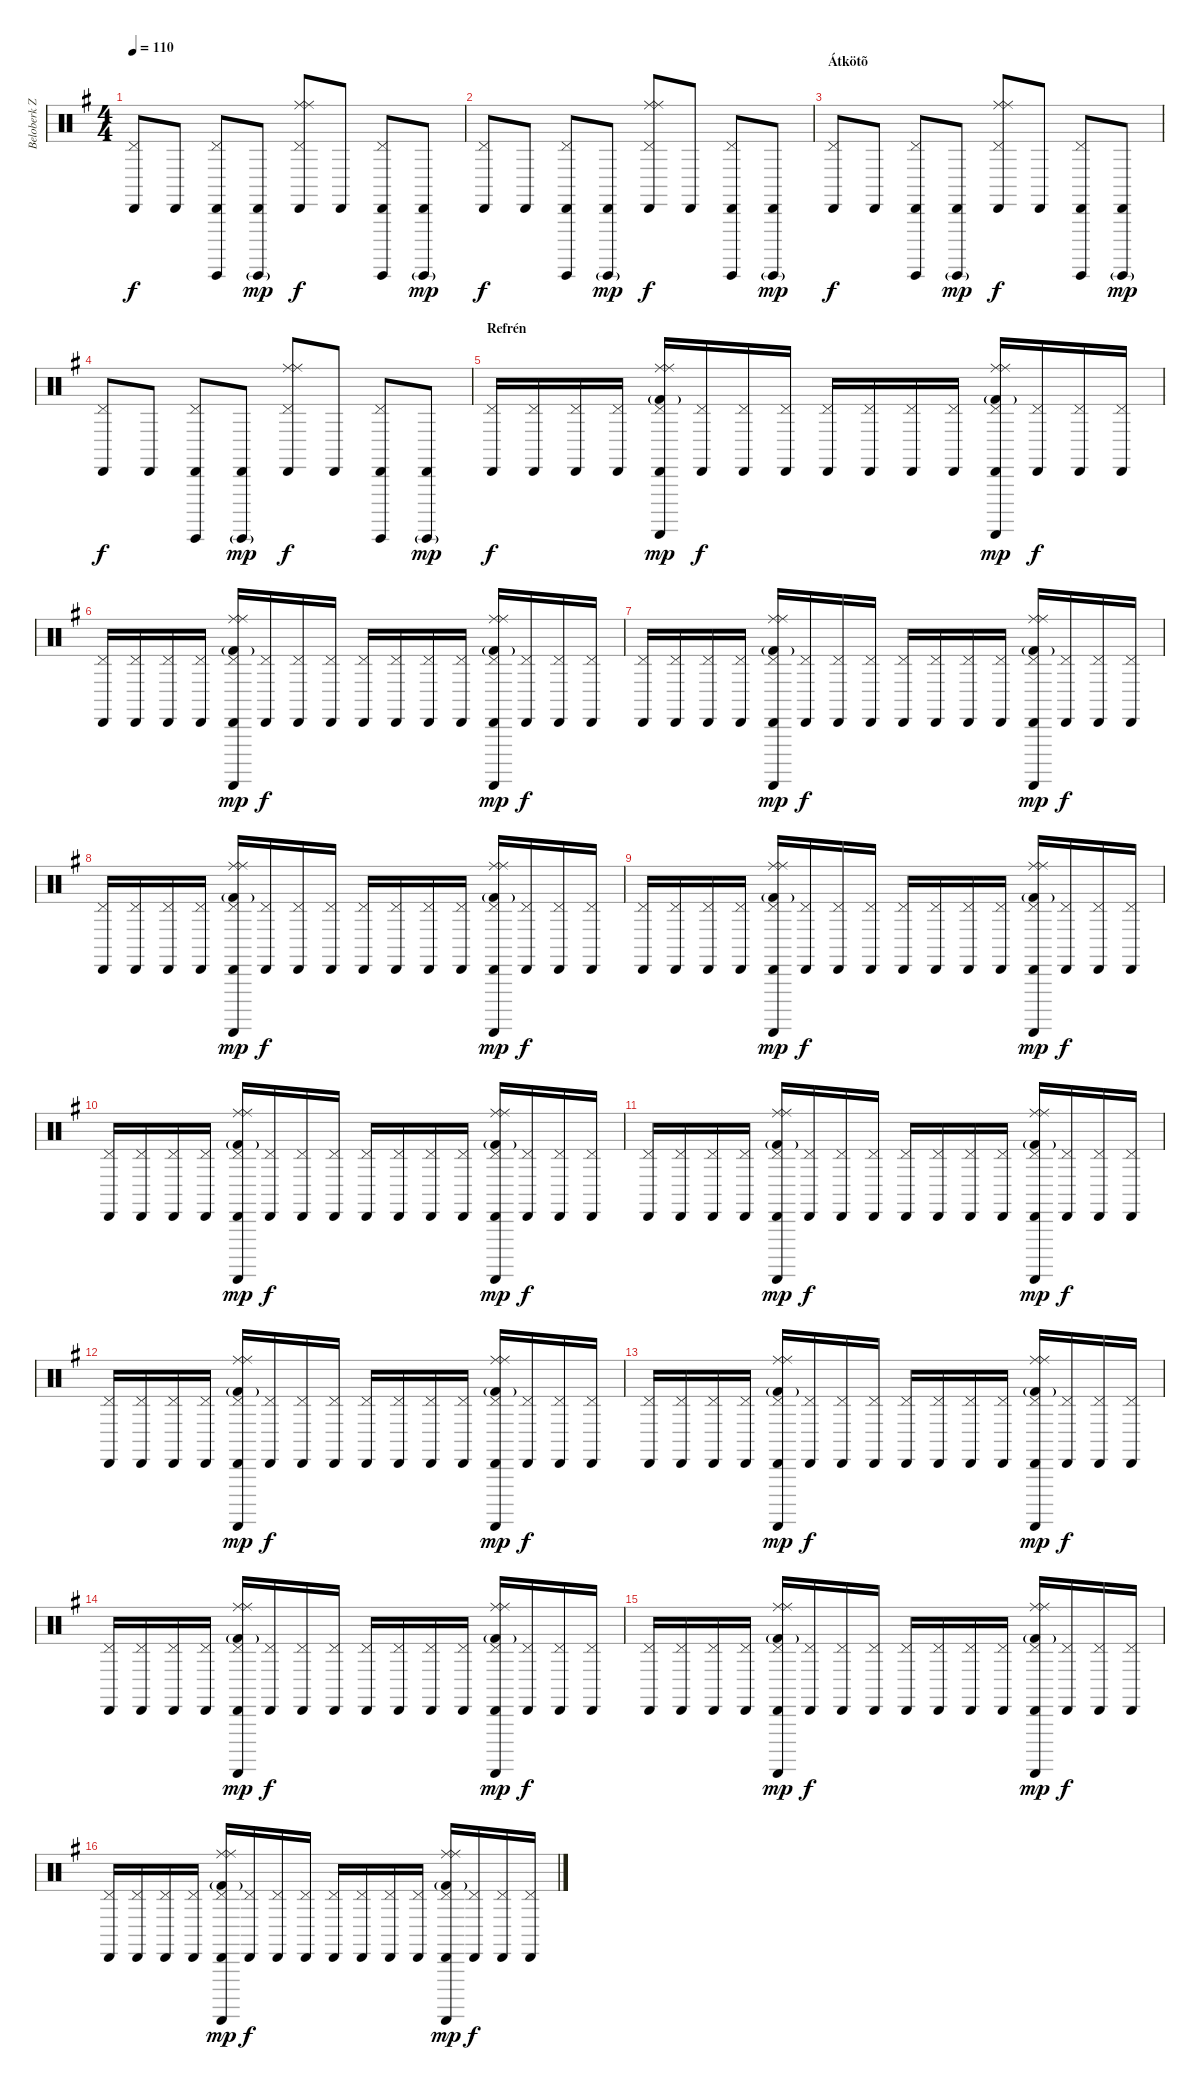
\track ("Beloberk Zsolt" "Beloberk Z") {instrument percussion}
\staff {score}
\articulation defaults
\ts (4 4)
\tempo 110
\clef neutral
\ks eminor
("Cabasa (hit)" "Pedal Hi-Hat (hit)").8{dy f} "Cabasa (hit)".8 ("Cabasa (hit)" "Guiro (hit)" "Pedal Hi-Hat (hit)").8 ("Cabasa (hit)" "Guiro (hit)"{g}).8{dy mp} ("Cabasa (hit)" "Pedal Hi-Hat (hit)" "Ride (middle)" "Ride (middle)").8{dy f} "Cabasa (hit)".8 ("Cabasa (hit)" "Guiro (hit)" "Pedal Hi-Hat (hit)").8 ("Cabasa (hit)" "Guiro (hit)"{g}).8{dy mp} |
("Cabasa (hit)" "Pedal Hi-Hat (hit)").8{dy f} "Cabasa (hit)".8 ("Cabasa (hit)" "Guiro (hit)" "Pedal Hi-Hat (hit)").8 ("Cabasa (hit)" "Guiro (hit)"{g}).8{dy mp} ("Cabasa (hit)" "Pedal Hi-Hat (hit)" "Ride (middle)" "Ride (middle)").8{dy f} "Cabasa (hit)".8 ("Cabasa (hit)" "Guiro (hit)" "Pedal Hi-Hat (hit)").8 ("Cabasa (hit)" "Guiro (hit)"{g}).8{dy mp} |
\section ("" "Átkötõ")
("Cabasa (hit)" "Pedal Hi-Hat (hit)").8{dy f} "Cabasa (hit)".8 ("Cabasa (hit)" "Guiro (hit)" "Pedal Hi-Hat (hit)").8 ("Cabasa (hit)" "Guiro (hit)"{g}).8{dy mp} ("Cabasa (hit)" "Pedal Hi-Hat (hit)" "Ride (middle)" "Ride (middle)").8{dy f} "Cabasa (hit)".8 ("Cabasa (hit)" "Guiro (hit)" "Pedal Hi-Hat (hit)").8 ("Cabasa (hit)" "Guiro (hit)"{g}).8{dy mp} |
("Cabasa (hit)" "Pedal Hi-Hat (hit)").8{dy f} "Cabasa (hit)".8 ("Cabasa (hit)" "Guiro (hit)" "Pedal Hi-Hat (hit)").8 ("Cabasa (hit)" "Guiro (hit)"{g}).8{dy mp} ("Cabasa (hit)" "Pedal Hi-Hat (hit)" "Ride (middle)" "Ride (middle)").8{dy f} "Cabasa (hit)".8 ("Cabasa (hit)" "Guiro (hit)" "Pedal Hi-Hat (hit)").8 ("Cabasa (hit)" "Guiro (hit)"{g}).8{dy mp} |
\section ("" "Refrén")
("Pedal Hi-Hat (hit)" "Cabasa (hit)").16{dy f} ("Pedal Hi-Hat (hit)" "Cabasa (hit)").16 ("Pedal Hi-Hat (hit)" "Cabasa (hit)").16 ("Pedal Hi-Hat (hit)" "Cabasa (hit)").16 ("Pedal Hi-Hat (hit)" "Cabasa (hit)" "Ride (middle)" "Ride (middle)" "Kick (hit) 2"{g} "Guiro (scrap-return)").16{dy mp} ("Pedal Hi-Hat (hit)" "Cabasa (hit)").16{dy f} ("Pedal Hi-Hat (hit)" "Cabasa (hit)").16 ("Pedal Hi-Hat (hit)" "Cabasa (hit)").16 ("Pedal Hi-Hat (hit)" "Cabasa (hit)").16 ("Pedal Hi-Hat (hit)" "Cabasa (hit)").16 ("Pedal Hi-Hat (hit)" "Cabasa (hit)").16 ("Pedal Hi-Hat (hit)" "Cabasa (hit)").16 ("Pedal Hi-Hat (hit)" "Cabasa (hit)" "Ride (middle)" "Ride (middle)" "Kick (hit) 2"{g} "Guiro (scrap-return)").16{dy mp} ("Pedal Hi-Hat (hit)" "Cabasa (hit)").16{dy f} ("Pedal Hi-Hat (hit)" "Cabasa (hit)").16 ("Pedal Hi-Hat (hit)" "Cabasa (hit)").16 |
("Pedal Hi-Hat (hit)" "Cabasa (hit)").16 ("Pedal Hi-Hat (hit)" "Cabasa (hit)").16 ("Pedal Hi-Hat (hit)" "Cabasa (hit)").16 ("Pedal Hi-Hat (hit)" "Cabasa (hit)").16 ("Pedal Hi-Hat (hit)" "Cabasa (hit)" "Ride (middle)" "Ride (middle)" "Kick (hit) 2"{g} "Guiro (scrap-return)").16{dy mp} ("Pedal Hi-Hat (hit)" "Cabasa (hit)").16{dy f} ("Pedal Hi-Hat (hit)" "Cabasa (hit)").16 ("Pedal Hi-Hat (hit)" "Cabasa (hit)").16 ("Pedal Hi-Hat (hit)" "Cabasa (hit)").16 ("Pedal Hi-Hat (hit)" "Cabasa (hit)").16 ("Pedal Hi-Hat (hit)" "Cabasa (hit)").16 ("Pedal Hi-Hat (hit)" "Cabasa (hit)").16 ("Pedal Hi-Hat (hit)" "Cabasa (hit)" "Ride (middle)" "Ride (middle)" "Kick (hit) 2"{g} "Guiro (scrap-return)").16{dy mp} ("Pedal Hi-Hat (hit)" "Cabasa (hit)").16{dy f} ("Pedal Hi-Hat (hit)" "Cabasa (hit)").16 ("Pedal Hi-Hat (hit)" "Cabasa (hit)").16 |
("Pedal Hi-Hat (hit)" "Cabasa (hit)").16 ("Pedal Hi-Hat (hit)" "Cabasa (hit)").16 ("Pedal Hi-Hat (hit)" "Cabasa (hit)").16 ("Pedal Hi-Hat (hit)" "Cabasa (hit)").16 ("Pedal Hi-Hat (hit)" "Cabasa (hit)" "Ride (middle)" "Ride (middle)" "Kick (hit) 2"{g} "Guiro (scrap-return)").16{dy mp} ("Pedal Hi-Hat (hit)" "Cabasa (hit)").16{dy f} ("Pedal Hi-Hat (hit)" "Cabasa (hit)").16 ("Pedal Hi-Hat (hit)" "Cabasa (hit)").16 ("Pedal Hi-Hat (hit)" "Cabasa (hit)").16 ("Pedal Hi-Hat (hit)" "Cabasa (hit)").16 ("Pedal Hi-Hat (hit)" "Cabasa (hit)").16 ("Pedal Hi-Hat (hit)" "Cabasa (hit)").16 ("Pedal Hi-Hat (hit)" "Cabasa (hit)" "Ride (middle)" "Ride (middle)" "Kick (hit) 2"{g} "Guiro (scrap-return)").16{dy mp} ("Pedal Hi-Hat (hit)" "Cabasa (hit)").16{dy f} ("Pedal Hi-Hat (hit)" "Cabasa (hit)").16 ("Pedal Hi-Hat (hit)" "Cabasa (hit)").16 |
("Pedal Hi-Hat (hit)" "Cabasa (hit)").16 ("Pedal Hi-Hat (hit)" "Cabasa (hit)").16 ("Pedal Hi-Hat (hit)" "Cabasa (hit)").16 ("Pedal Hi-Hat (hit)" "Cabasa (hit)").16 ("Pedal Hi-Hat (hit)" "Cabasa (hit)" "Ride (middle)" "Ride (middle)" "Kick (hit) 2"{g} "Guiro (scrap-return)").16{dy mp} ("Pedal Hi-Hat (hit)" "Cabasa (hit)").16{dy f} ("Pedal Hi-Hat (hit)" "Cabasa (hit)").16 ("Pedal Hi-Hat (hit)" "Cabasa (hit)").16 ("Pedal Hi-Hat (hit)" "Cabasa (hit)").16 ("Pedal Hi-Hat (hit)" "Cabasa (hit)").16 ("Pedal Hi-Hat (hit)" "Cabasa (hit)").16 ("Pedal Hi-Hat (hit)" "Cabasa (hit)").16 ("Pedal Hi-Hat (hit)" "Cabasa (hit)" "Ride (middle)" "Ride (middle)" "Kick (hit) 2"{g} "Guiro (scrap-return)").16{dy mp} ("Pedal Hi-Hat (hit)" "Cabasa (hit)").16{dy f} ("Pedal Hi-Hat (hit)" "Cabasa (hit)").16 ("Pedal Hi-Hat (hit)" "Cabasa (hit)").16 |
("Pedal Hi-Hat (hit)" "Cabasa (hit)").16 ("Pedal Hi-Hat (hit)" "Cabasa (hit)").16 ("Pedal Hi-Hat (hit)" "Cabasa (hit)").16 ("Pedal Hi-Hat (hit)" "Cabasa (hit)").16 ("Pedal Hi-Hat (hit)" "Cabasa (hit)" "Ride (middle)" "Ride (middle)" "Kick (hit) 2"{g} "Guiro (scrap-return)").16{dy mp} ("Pedal Hi-Hat (hit)" "Cabasa (hit)").16{dy f} ("Pedal Hi-Hat (hit)" "Cabasa (hit)").16 ("Pedal Hi-Hat (hit)" "Cabasa (hit)").16 ("Pedal Hi-Hat (hit)" "Cabasa (hit)").16 ("Pedal Hi-Hat (hit)" "Cabasa (hit)").16 ("Pedal Hi-Hat (hit)" "Cabasa (hit)").16 ("Pedal Hi-Hat (hit)" "Cabasa (hit)").16 ("Pedal Hi-Hat (hit)" "Cabasa (hit)" "Ride (middle)" "Ride (middle)" "Kick (hit) 2"{g} "Guiro (scrap-return)").16{dy mp} ("Pedal Hi-Hat (hit)" "Cabasa (hit)").16{dy f} ("Pedal Hi-Hat (hit)" "Cabasa (hit)").16 ("Pedal Hi-Hat (hit)" "Cabasa (hit)").16 |
("Pedal Hi-Hat (hit)" "Cabasa (hit)").16 ("Pedal Hi-Hat (hit)" "Cabasa (hit)").16 ("Pedal Hi-Hat (hit)" "Cabasa (hit)").16 ("Pedal Hi-Hat (hit)" "Cabasa (hit)").16 ("Pedal Hi-Hat (hit)" "Cabasa (hit)" "Ride (middle)" "Ride (middle)" "Kick (hit) 2"{g} "Guiro (scrap-return)").16{dy mp} ("Pedal Hi-Hat (hit)" "Cabasa (hit)").16{dy f} ("Pedal Hi-Hat (hit)" "Cabasa (hit)").16 ("Pedal Hi-Hat (hit)" "Cabasa (hit)").16 ("Pedal Hi-Hat (hit)" "Cabasa (hit)").16 ("Pedal Hi-Hat (hit)" "Cabasa (hit)").16 ("Pedal Hi-Hat (hit)" "Cabasa (hit)").16 ("Pedal Hi-Hat (hit)" "Cabasa (hit)").16 ("Pedal Hi-Hat (hit)" "Cabasa (hit)" "Ride (middle)" "Ride (middle)" "Kick (hit) 2"{g} "Guiro (scrap-return)").16{dy mp} ("Pedal Hi-Hat (hit)" "Cabasa (hit)").16{dy f} ("Pedal Hi-Hat (hit)" "Cabasa (hit)").16 ("Pedal Hi-Hat (hit)" "Cabasa (hit)").16 |
("Pedal Hi-Hat (hit)" "Cabasa (hit)").16 ("Pedal Hi-Hat (hit)" "Cabasa (hit)").16 ("Pedal Hi-Hat (hit)" "Cabasa (hit)").16 ("Pedal Hi-Hat (hit)" "Cabasa (hit)").16 ("Pedal Hi-Hat (hit)" "Cabasa (hit)" "Ride (middle)" "Ride (middle)" "Kick (hit) 2"{g} "Guiro (scrap-return)").16{dy mp} ("Pedal Hi-Hat (hit)" "Cabasa (hit)").16{dy f} ("Pedal Hi-Hat (hit)" "Cabasa (hit)").16 ("Pedal Hi-Hat (hit)" "Cabasa (hit)").16 ("Pedal Hi-Hat (hit)" "Cabasa (hit)").16 ("Pedal Hi-Hat (hit)" "Cabasa (hit)").16 ("Pedal Hi-Hat (hit)" "Cabasa (hit)").16 ("Pedal Hi-Hat (hit)" "Cabasa (hit)").16 ("Pedal Hi-Hat (hit)" "Cabasa (hit)" "Ride (middle)" "Ride (middle)" "Kick (hit) 2"{g} "Guiro (scrap-return)").16{dy mp} ("Pedal Hi-Hat (hit)" "Cabasa (hit)").16{dy f} ("Pedal Hi-Hat (hit)" "Cabasa (hit)").16 ("Pedal Hi-Hat (hit)" "Cabasa (hit)").16 |
("Pedal Hi-Hat (hit)" "Cabasa (hit)").16 ("Pedal Hi-Hat (hit)" "Cabasa (hit)").16 ("Pedal Hi-Hat (hit)" "Cabasa (hit)").16 ("Pedal Hi-Hat (hit)" "Cabasa (hit)").16 ("Pedal Hi-Hat (hit)" "Cabasa (hit)" "Ride (middle)" "Ride (middle)" "Kick (hit) 2"{g} "Guiro (scrap-return)").16{dy mp} ("Pedal Hi-Hat (hit)" "Cabasa (hit)").16{dy f} ("Pedal Hi-Hat (hit)" "Cabasa (hit)").16 ("Pedal Hi-Hat (hit)" "Cabasa (hit)").16 ("Pedal Hi-Hat (hit)" "Cabasa (hit)").16 ("Pedal Hi-Hat (hit)" "Cabasa (hit)").16 ("Pedal Hi-Hat (hit)" "Cabasa (hit)").16 ("Pedal Hi-Hat (hit)" "Cabasa (hit)").16 ("Pedal Hi-Hat (hit)" "Cabasa (hit)" "Ride (middle)" "Ride (middle)" "Kick (hit) 2"{g} "Guiro (scrap-return)").16{dy mp} ("Pedal Hi-Hat (hit)" "Cabasa (hit)").16{dy f} ("Pedal Hi-Hat (hit)" "Cabasa (hit)").16 ("Pedal Hi-Hat (hit)" "Cabasa (hit)").16 |
("Pedal Hi-Hat (hit)" "Cabasa (hit)").16 ("Pedal Hi-Hat (hit)" "Cabasa (hit)").16 ("Pedal Hi-Hat (hit)" "Cabasa (hit)").16 ("Pedal Hi-Hat (hit)" "Cabasa (hit)").16 ("Pedal Hi-Hat (hit)" "Cabasa (hit)" "Ride (middle)" "Ride (middle)" "Kick (hit) 2"{g} "Guiro (scrap-return)").16{dy mp} ("Pedal Hi-Hat (hit)" "Cabasa (hit)").16{dy f} ("Pedal Hi-Hat (hit)" "Cabasa (hit)").16 ("Pedal Hi-Hat (hit)" "Cabasa (hit)").16 ("Pedal Hi-Hat (hit)" "Cabasa (hit)").16 ("Pedal Hi-Hat (hit)" "Cabasa (hit)").16 ("Pedal Hi-Hat (hit)" "Cabasa (hit)").16 ("Pedal Hi-Hat (hit)" "Cabasa (hit)").16 ("Pedal Hi-Hat (hit)" "Cabasa (hit)" "Ride (middle)" "Ride (middle)" "Kick (hit) 2"{g} "Guiro (scrap-return)").16{dy mp} ("Pedal Hi-Hat (hit)" "Cabasa (hit)").16{dy f} ("Pedal Hi-Hat (hit)" "Cabasa (hit)").16 ("Pedal Hi-Hat (hit)" "Cabasa (hit)").16 |
("Pedal Hi-Hat (hit)" "Cabasa (hit)").16 ("Pedal Hi-Hat (hit)" "Cabasa (hit)").16 ("Pedal Hi-Hat (hit)" "Cabasa (hit)").16 ("Pedal Hi-Hat (hit)" "Cabasa (hit)").16 ("Pedal Hi-Hat (hit)" "Cabasa (hit)" "Ride (middle)" "Ride (middle)" "Kick (hit) 2"{g} "Guiro (scrap-return)").16{dy mp} ("Pedal Hi-Hat (hit)" "Cabasa (hit)").16{dy f} ("Pedal Hi-Hat (hit)" "Cabasa (hit)").16 ("Pedal Hi-Hat (hit)" "Cabasa (hit)").16 ("Pedal Hi-Hat (hit)" "Cabasa (hit)").16 ("Pedal Hi-Hat (hit)" "Cabasa (hit)").16 ("Pedal Hi-Hat (hit)" "Cabasa (hit)").16 ("Pedal Hi-Hat (hit)" "Cabasa (hit)").16 ("Pedal Hi-Hat (hit)" "Cabasa (hit)" "Ride (middle)" "Ride (middle)" "Kick (hit) 2"{g} "Guiro (scrap-return)").16{dy mp} ("Pedal Hi-Hat (hit)" "Cabasa (hit)").16{dy f} ("Pedal Hi-Hat (hit)" "Cabasa (hit)").16 ("Pedal Hi-Hat (hit)" "Cabasa (hit)").16 |
("Pedal Hi-Hat (hit)" "Cabasa (hit)").16 ("Pedal Hi-Hat (hit)" "Cabasa (hit)").16 ("Pedal Hi-Hat (hit)" "Cabasa (hit)").16 ("Pedal Hi-Hat (hit)" "Cabasa (hit)").16 ("Pedal Hi-Hat (hit)" "Cabasa (hit)" "Ride (middle)" "Ride (middle)" "Kick (hit) 2"{g} "Guiro (scrap-return)").16{dy mp} ("Pedal Hi-Hat (hit)" "Cabasa (hit)").16{dy f} ("Pedal Hi-Hat (hit)" "Cabasa (hit)").16 ("Pedal Hi-Hat (hit)" "Cabasa (hit)").16 ("Pedal Hi-Hat (hit)" "Cabasa (hit)").16 ("Pedal Hi-Hat (hit)" "Cabasa (hit)").16 ("Pedal Hi-Hat (hit)" "Cabasa (hit)").16 ("Pedal Hi-Hat (hit)" "Cabasa (hit)").16 ("Pedal Hi-Hat (hit)" "Cabasa (hit)" "Ride (middle)" "Ride (middle)" "Kick (hit) 2"{g} "Guiro (scrap-return)").16{dy mp} ("Pedal Hi-Hat (hit)" "Cabasa (hit)").16{dy f} ("Pedal Hi-Hat (hit)" "Cabasa (hit)").16 ("Pedal Hi-Hat (hit)" "Cabasa (hit)").16 |
("Pedal Hi-Hat (hit)" "Cabasa (hit)").16 ("Pedal Hi-Hat (hit)" "Cabasa (hit)").16 ("Pedal Hi-Hat (hit)" "Cabasa (hit)").16 ("Pedal Hi-Hat (hit)" "Cabasa (hit)").16 ("Pedal Hi-Hat (hit)" "Cabasa (hit)" "Ride (middle)" "Ride (middle)" "Kick (hit) 2"{g} "Guiro (scrap-return)").16{dy mp} ("Pedal Hi-Hat (hit)" "Cabasa (hit)").16{dy f} ("Pedal Hi-Hat (hit)" "Cabasa (hit)").16 ("Pedal Hi-Hat (hit)" "Cabasa (hit)").16 ("Pedal Hi-Hat (hit)" "Cabasa (hit)").16 ("Pedal Hi-Hat (hit)" "Cabasa (hit)").16 ("Pedal Hi-Hat (hit)" "Cabasa (hit)").16 ("Pedal Hi-Hat (hit)" "Cabasa (hit)").16 ("Pedal Hi-Hat (hit)" "Cabasa (hit)" "Ride (middle)" "Ride (middle)" "Kick (hit) 2"{g} "Guiro (scrap-return)").16{dy mp} ("Pedal Hi-Hat (hit)" "Cabasa (hit)").16{dy f} ("Pedal Hi-Hat (hit)" "Cabasa (hit)").16 ("Pedal Hi-Hat (hit)" "Cabasa (hit)").16
